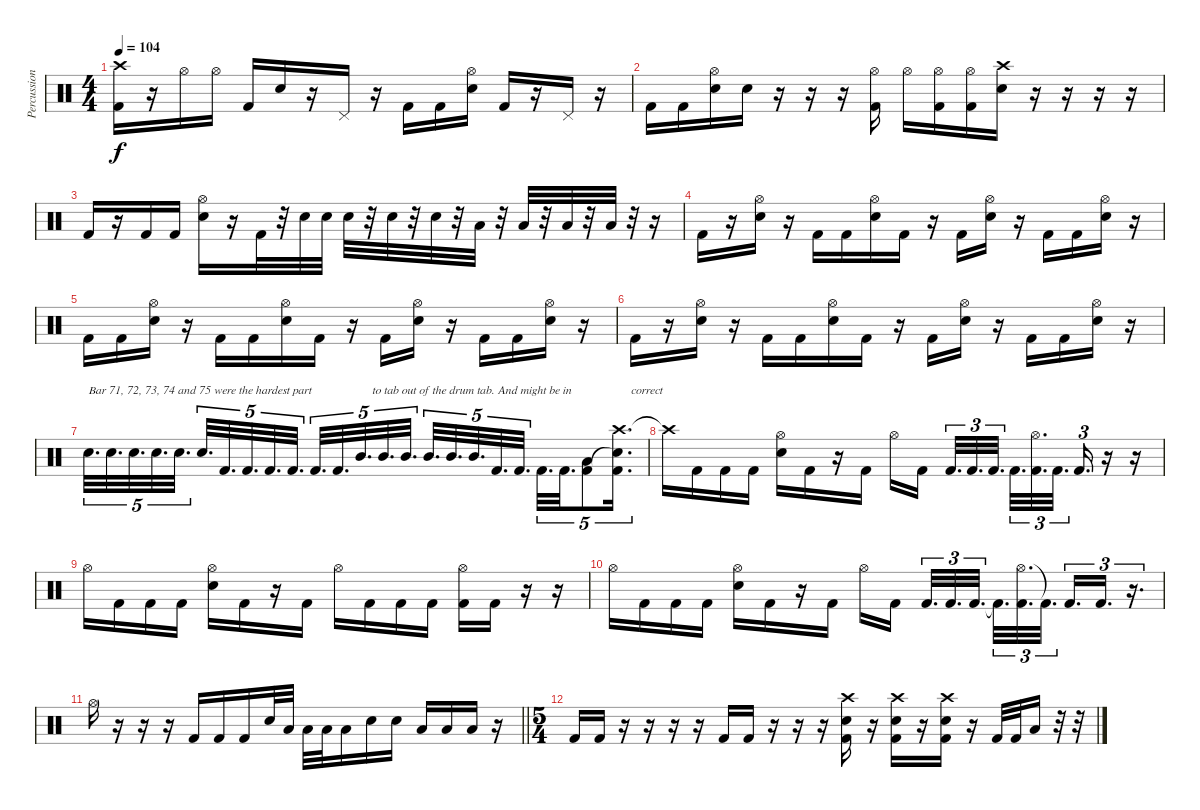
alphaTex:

\track ("Percussion" "Percussion") {instrument percussion}
\staff {score}
\articulation defaults
\ts (4 4)
\tempo 104
\clef neutral
\ks c
("Crash high (hit)" "Kick (hit) 2").16{dy f} r.16 "Hi-Hat (open)".16 "Hi-Hat (open)".16 "Kick (hit) 2".16 "Snare (hit) 2".16 r.16 "Pedal Hi-Hat (hit)".16 r.16 "Kick (hit) 2".16 "Kick (hit) 2".16 ("Hi-Hat (open)" "Snare (hit) 2").16 "Kick (hit) 2".16 r.16 "Pedal Hi-Hat (hit)".16 r.16 |
"Kick (hit) 2".16 "Kick (hit) 2".16 ("Hi-Hat (open)" "Snare (hit) 2").16 "Snare (hit) 2".16 r.16 r.16 r.16 ("Hi-Hat (open)" "Kick (hit) 2").16 "Hi-Hat (open)".16 ("Hi-Hat (open)" "Kick (hit) 2").16 ("Hi-Hat (open)" "Kick (hit) 2").16 ("Crash high (hit)" "Snare (hit) 2").16 r.16 r.16 r.16 r.16 |
"Kick (hit) 2".16 r.16 "Kick (hit) 2".16 "Kick (hit) 2".16 ("Hi-Hat (open)" "Snare (hit) 2").16 r.16 "Kick (hit) 2".32 r.32 "Snare (hit) 2".32 "Snare (hit) 2".32 "Snare (hit) 2".32 r.32 "Snare (hit) 2".32 r.32 "Snare (hit) 2".32 r.32 "Low Tom (hit)".32 r.32 "Low Tom (hit)".32 r.32 "Low Tom (hit)".32 r.32 "Low Tom (hit)".32 r.32 r.16 |
"Kick (hit) 2".16 r.16 ("Hi-Hat (open)" "Snare (hit) 2").16 r.16 "Kick (hit) 2".16 "Kick (hit) 2".16 ("Hi-Hat (open)" "Snare (hit) 2").16 "Kick (hit) 2".16 r.16 "Kick (hit) 2".16 ("Hi-Hat (open)" "Snare (hit) 2").16 r.16 "Kick (hit) 2".16 "Kick (hit) 2".16 ("Hi-Hat (open)" "Snare (hit) 2").16 r.16 |
"Kick (hit) 2".16 "Kick (hit) 2".16 ("Hi-Hat (open)" "Snare (hit) 2").16 r.16 "Kick (hit) 2".16 "Kick (hit) 2".16 ("Hi-Hat (open)" "Snare (hit) 2").16 "Kick (hit) 2".16 r.16 "Kick (hit) 2".16 ("Hi-Hat (open)" "Snare (hit) 2").16 r.16 "Kick (hit) 2".16 "Kick (hit) 2".16 ("Hi-Hat (open)" "Snare (hit) 2").16 r.16 |
"Kick (hit) 2".16 r.16 ("Hi-Hat (open)" "Snare (hit) 2").16 r.16 "Kick (hit) 2".16 "Kick (hit) 2".16 ("Hi-Hat (open)" "Snare (hit) 2").16 "Kick (hit) 2".16 r.16 "Kick (hit) 2".16 ("Hi-Hat (open)" "Snare (hit) 2").16 r.16 "Kick (hit) 2".16 "Kick (hit) 2".16 ("Hi-Hat (open)" "Snare (hit) 2").16 r.16 |
"Snare (hit) 2".32{d tu (5 4) txt "Bar 71, 72, 73, 74 and 75 were the hardest part "} "Snare (hit) 2".32{d tu (5 4)} "Snare (hit) 2".32{d tu (5 4)} "Snare (hit) 2".32{d tu (5 4)} "Snare (hit) 2".32{d tu (5 4)} "Snare (hit) 2".32{d tu (5 4)} "Kick (hit) 2".32{d tu (5 4)} "Kick (hit) 2".32{d tu (5 4)} "Kick (hit) 2".32{d tu (5 4)} "Kick (hit) 2".32{d tu (5 4)} "Kick (hit) 2".32{d tu (5 4)} "Kick (hit) 2".32{d tu (5 4)} "Mid Tom (hit)".32{d tu (5 4) txt "    to tab out of the drum tab. And might be in"} "Mid Tom (hit)".32{d tu (5 4)} "Mid Tom (hit)".32{d tu (5 4)} "Mid Tom (hit)".32{d tu (5 4)} "Mid Tom (hit)".32{d tu (5 4)} "Mid Tom (hit)".32{d tu (5 4)} "Kick (hit) 2".32{d tu (5 4)} "Kick (hit) 2".32{d tu (5 4)} "Kick (hit) 2".32{d tu (5 4)} "Kick (hit) 2".32{d tu (5 4)} ("Low Tom (hit)" "Kick (hit) 2").8{tu (5 4)} ("Crash high (hit)" "Snare (hit)"{t} "Kick (hit) 2").16{d tu (5 4) txt "    correct"} |
"Crash high (hit)"{t}.16 "Kick (hit) 2".16 "Kick (hit) 2".16 "Kick (hit) 2".16 ("Hi-Hat (open)" "Snare (hit) 2").16 "Kick (hit) 2".16 r.16 "Kick (hit) 2".16 "Hi-Hat (open)".16 "Kick (hit) 2".16{beam splitsecondary} "Kick (hit) 2".32{d tu (3 2)} "Kick (hit) 2".32{d tu (3 2)} "Kick (hit) 2".32{d tu (3 2)} "Kick (hit) 2".32{d tu (3 2)} ("Hi-Hat (open)" "Kick (hit) 2").32{d tu (3 2)} "Kick (hit) 2".32{d tu (3 2)} "Kick (hit) 2".16{d tu (3 2)} r.16 r.16 |
"Hi-Hat (open)".16 "Kick (hit) 2".16 "Kick (hit) 2".16 "Kick (hit) 2".16 ("Hi-Hat (open)" "Snare (hit) 2").16 "Kick (hit) 2".16 r.16 "Kick (hit) 2".16 "Hi-Hat (open)".16 "Kick (hit) 2".16 "Kick (hit) 2".16 "Kick (hit) 2".16 ("Hi-Hat (open)" "Kick (hit) 2").16 "Kick (hit) 2".16 r.16 r.16 |
"Hi-Hat (open)".16 "Kick (hit) 2".16 "Kick (hit) 2".16 "Kick (hit) 2".16 ("Hi-Hat (open)" "Snare (hit) 2").16 "Kick (hit) 2".16 r.16 "Kick (hit) 2".16 "Hi-Hat (open)".16 "Kick (hit) 2".16{beam splitsecondary} "Kick (hit) 2".32{d tu (3 2)} "Kick (hit) 2".32{d tu (3 2)} "Kick (hit) 2".32{d tu (3 2)} "Kick (hit) 2"{t}.32{d tu (3 2)} ("Hi-Hat (open)" "Kick (hit) 2").32{d tu (3 2)} "Kick (hit) 2"{t}.32{d tu (3 2)} "Kick (hit) 2".16{d tu (3 2)} "Kick (hit) 2".16{d tu (3 2)} r.16{d tu (3 2)} |
\barLineRight lightlight "Hi-Hat (open)".16
r.16 r.16 r.16 "Kick (hit) 2".16 "Kick (hit) 2".16 "Kick (hit) 2".16 "Snare (hit) 2".32 "Low Tom (hit)".32 "Low Tom (hit)".32 "Low Tom (hit)".32 "Low Tom (hit)".16 "Snare (hit) 2".16 "Snare (hit) 2".16 "Low Tom (hit)".16 "Low Tom (hit)".16 "Low Tom (hit)".16 r.16 |
\ts (5 4)
"Kick (hit) 2".16 "Kick (hit) 2".16 r.16 r.16 r.16 r.16 "Kick (hit) 2".16 "Kick (hit) 2".16 r.16 r.16 r.16 ("Crash high (hit)" "Snare (hit) 2" "Kick (hit) 2").16 r.16 ("Crash high (hit)" "Snare (hit) 2" "Kick (hit) 2").16 r.16 ("Crash high (hit)" "Snare (hit) 2" "Kick (hit) 2").16 r.16 "Kick (hit) 2".32 "Kick (hit) 2".32 "Low Tom (hit)".16 r.32 r.32
